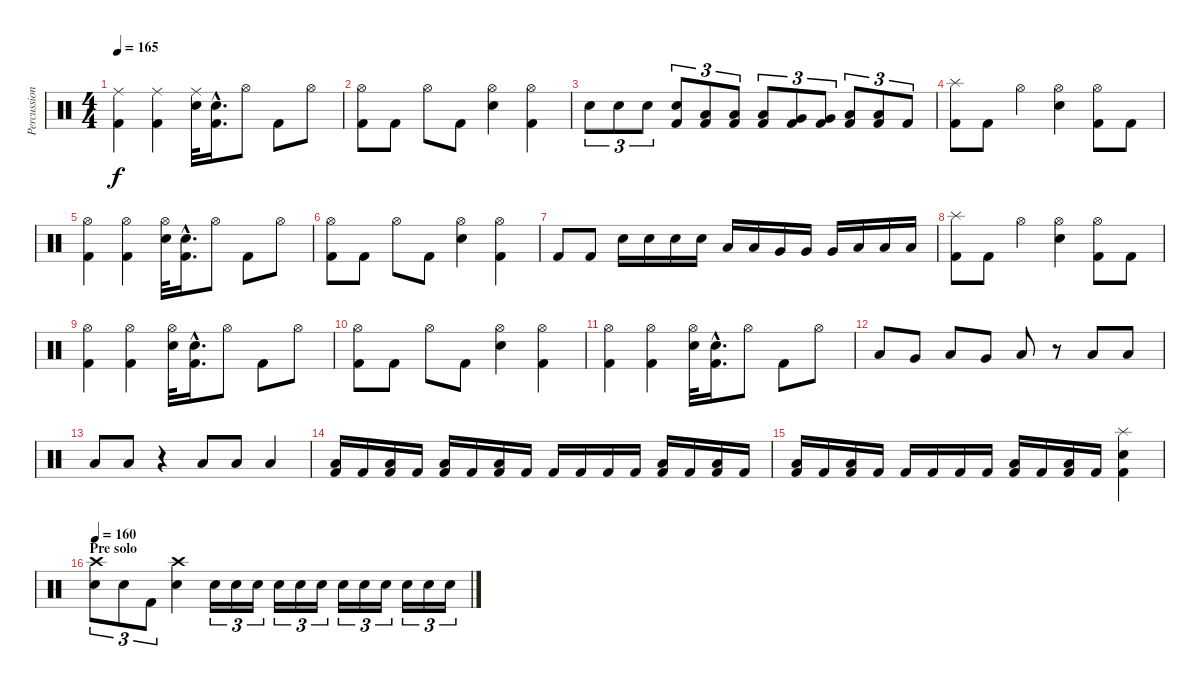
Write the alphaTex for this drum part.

\track ("Percussions" "Percussion") {instrument percussion}
\staff {score}
\articulation defaults
\ts (4 4)
\tempo 165
\clef neutral
\ks c
("Ride (middle)" "Kick (hit) 2").4{dy f} ("Ride (middle)" "Kick (hit) 2").4 ("Ride (middle)" "Electric Snare (hit)").32 ("Electric Snare (hit)"{hac} "Kick (hit) 2"{hac}).16{d} "Hi-Hat (open)".8 "Kick (hit) 2".8 "Hi-Hat (open)".8 |
("Hi-Hat (open)" "Kick (hit) 2").8 "Kick (hit) 2".8 "Hi-Hat (open)".8 "Kick (hit) 2".8 ("Hi-Hat (open)" "Electric Snare (hit)").4 ("Hi-Hat (open)" "Kick (hit) 2").4 |
"Electric Snare (hit)".8{tu (3 2)} "Electric Snare (hit)".8{tu (3 2)} "Electric Snare (hit)".8{tu (3 2)} ("Electric Snare (hit)" "Kick (hit) 2").8{tu (3 2)} ("Low Tom (hit)" "Kick (hit) 2").8{tu (3 2)} ("Low Tom (hit)" "Kick (hit) 2").8{tu (3 2)} ("Low Tom (hit)" "Kick (hit) 2").8{tu (3 2)} ("Very Low Tom (hit)" "Kick (hit) 2").8{tu (3 2)} ("Very Low Tom (hit)" "Kick (hit) 2").8{tu (3 2)} ("Low Floor Tom (hit)" "Kick (hit) 2").8{tu (3 2)} ("Low Floor Tom (hit)" "Kick (hit) 2").8{tu (3 2)} "Kick (hit) 2".8{tu (3 2)} |
("Splash (hit)" "Kick (hit) 2").8 "Kick (hit) 2".8 "Hi-Hat (open)".4 ("Hi-Hat (open)" "Electric Snare (hit)").4 ("Hi-Hat (open)" "Kick (hit) 2").8 "Kick (hit) 2".8 |
("Hi-Hat (open)" "Kick (hit) 2").4 ("Hi-Hat (open)" "Kick (hit) 2").4 ("Hi-Hat (open)" "Electric Snare (hit)").32 ("Electric Snare (hit)"{hac} "Kick (hit) 2"{hac}).16{d} "Hi-Hat (open)".8 "Kick (hit) 2".8 "Hi-Hat (open)".8 |
("Hi-Hat (open)" "Kick (hit) 2").8 "Kick (hit) 2".8 "Hi-Hat (open)".8 "Kick (hit) 2".8 ("Hi-Hat (open)" "Electric Snare (hit)").4 ("Hi-Hat (open)" "Kick (hit) 2").4 |
"Kick (hit) 2".8 "Kick (hit) 2".8 "Electric Snare (hit)".16 "Electric Snare (hit)".16 "Electric Snare (hit)".16 "Electric Snare (hit)".16 "Low Tom (hit)".16 "Low Tom (hit)".16 "Very Low Tom (hit)".16 "Very Low Tom (hit)".16 "Very Low Tom (hit)".16 "Low Floor Tom (hit)".16 "Low Floor Tom (hit)".16 "Low Floor Tom (hit)".16 |
("Splash (hit)" "Kick (hit) 2").8 "Kick (hit) 2".8 "Hi-Hat (open)".4 ("Hi-Hat (open)" "Electric Snare (hit)").4 ("Hi-Hat (open)" "Kick (hit) 2").8 "Kick (hit) 2".8 |
("Hi-Hat (open)" "Kick (hit) 2").4 ("Hi-Hat (open)" "Kick (hit) 2").4 ("Hi-Hat (open)" "Electric Snare (hit)").32 ("Electric Snare (hit)"{hac} "Kick (hit) 2"{hac}).16{d} "Hi-Hat (open)".8 "Kick (hit) 2".8 "Hi-Hat (open)".8 |
("Hi-Hat (open)" "Kick (hit) 2").8 "Kick (hit) 2".8 "Hi-Hat (open)".8 "Kick (hit) 2".8 ("Hi-Hat (open)" "Electric Snare (hit)").4 ("Hi-Hat (open)" "Kick (hit) 2").4 |
("Hi-Hat (open)" "Kick (hit) 2").4 ("Hi-Hat (open)" "Kick (hit) 2").4 ("Hi-Hat (open)" "Electric Snare (hit)").32 ("Electric Snare (hit)"{hac} "Kick (hit) 2"{hac}).16{d} "Hi-Hat (open)".8 "Kick (hit) 2".8 "Hi-Hat (open)".8 |
"Low Floor Tom (hit)".8 "Very Low Tom (hit)".8 "Low Floor Tom (hit)".8 "Very Low Tom (hit)".8 "Low Floor Tom (hit)".8 r.8 "Low Floor Tom (hit)".8 "Low Floor Tom (hit)".8 |
"Low Floor Tom (hit)".8 "Low Floor Tom (hit)".8 r.4 "Low Floor Tom (hit)".8 "Low Floor Tom (hit)".8 "Low Floor Tom (hit)".4 |
("Low Floor Tom (hit)" "Kick (hit) 2").16 "Kick (hit) 2".16 ("Low Floor Tom (hit)" "Kick (hit) 2").16 "Kick (hit) 2".16 ("Low Floor Tom (hit)" "Kick (hit) 2").16 "Kick (hit) 2".16 ("Low Floor Tom (hit)" "Kick (hit) 2").16 "Kick (hit) 2".16 "Kick (hit) 2".16 "Kick (hit) 2".16 "Kick (hit) 2".16 "Kick (hit) 2".16 ("Low Floor Tom (hit)" "Kick (hit) 2").16 "Kick (hit) 2".16 ("Low Floor Tom (hit)" "Kick (hit) 2").16 "Kick (hit) 2".16 |
("Low Floor Tom (hit)" "Kick (hit) 2").16 "Kick (hit) 2".16 ("Low Floor Tom (hit)" "Kick (hit) 2").16 "Kick (hit) 2".16 "Kick (hit) 2".16 "Kick (hit) 2".16 "Kick (hit) 2".16 "Kick (hit) 2".16 ("Low Floor Tom (hit)" "Kick (hit) 2").16 "Kick (hit) 2".16 ("Low Floor Tom (hit)" "Kick (hit) 2").16 "Kick (hit) 2".16 ("Splash (hit)" "Electric Snare (hit)" "Kick (hit) 2").4 |
\section ("" "Pre solo")
\tempo 160
("Crash high (hit)" "Electric Snare (hit)").8{tu (3 2)} "Electric Snare (hit)".8{tu (3 2)} "Kick (hit) 2".8{tu (3 2)} ("Crash high (hit)" "Electric Snare (hit)").4 "Electric Snare (hit)".16{tu (3 2)} "Electric Snare (hit)".16{tu (3 2)} "Electric Snare (hit)".16{tu (3 2)} "Electric Snare (hit)".16{tu (3 2)} "Electric Snare (hit)".16{tu (3 2)} "Electric Snare (hit)".16{tu (3 2)} "Electric Snare (hit)".16{tu (3 2)} "Electric Snare (hit)".16{tu (3 2)} "Electric Snare (hit)".16{tu (3 2)} "Electric Snare (hit)".16{tu (3 2)} "Electric Snare (hit)".16{tu (3 2)} "Electric Snare (hit)".16{tu (3 2)}
